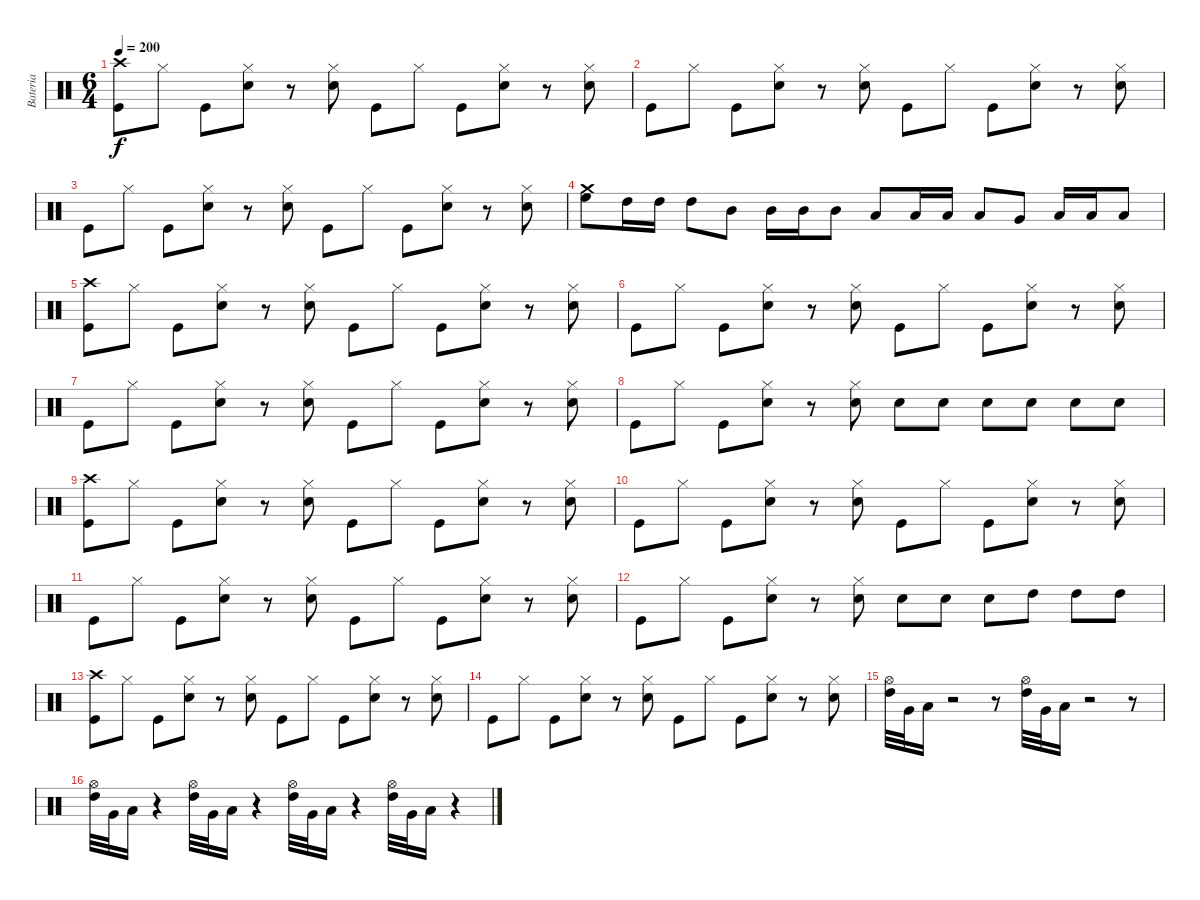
\track ("Bateria" "Bateria") {instrument percussion}
\staff {score}
\articulation defaults
\ts (6 4)
\tempo 200
\clef neutral
\ks c
("Kick (hit)" "Crash high (hit)").8{dy f} "Hi-Hat (closed)".8 "Kick (hit)".8 ("Electric Snare (hit)" "Hi-Hat (closed)").8 r.8 ("Electric Snare (hit)" "Hi-Hat (closed)").8 "Kick (hit)".8 "Hi-Hat (closed)".8 "Kick (hit)".8 ("Electric Snare (hit)" "Hi-Hat (closed)").8 r.8 ("Electric Snare (hit)" "Hi-Hat (closed)").8 |
"Kick (hit)".8 "Hi-Hat (closed)".8 "Kick (hit)".8 ("Electric Snare (hit)" "Hi-Hat (closed)").8 r.8 ("Electric Snare (hit)" "Hi-Hat (closed)").8 "Kick (hit)".8 "Hi-Hat (closed)".8 "Kick (hit)".8 ("Electric Snare (hit)" "Hi-Hat (closed)").8 r.8 ("Electric Snare (hit)" "Hi-Hat (closed)").8 |
"Kick (hit)".8 "Hi-Hat (closed)".8 "Kick (hit)".8 ("Electric Snare (hit)" "Hi-Hat (closed)").8 r.8 ("Electric Snare (hit)" "Hi-Hat (closed)").8 "Kick (hit)".8 "Hi-Hat (closed)".8 "Kick (hit)".8 ("Electric Snare (hit)" "Hi-Hat (closed)").8 r.8 ("Electric Snare (hit)" "Hi-Hat (closed)").8 |
("Crash medium (hit)" "High Floor Tom (hit)").8 "High Tom (hit)".16 "High Tom (hit)".16 "High Tom (hit)".8 "Mid Tom (hit)".8 "Mid Tom (hit)".16 "Mid Tom (hit)".16 "Mid Tom (hit)".8 "Low Tom (hit)".8 "Low Tom (hit)".16 "Low Tom (hit)".16 "Low Tom (hit)".8 "Very Low Tom (hit)".8 "Low Floor Tom (hit)".16 "Low Floor Tom (hit)".16 "Low Floor Tom (hit)".8 |
("Kick (hit)" "Crash high (hit)").8 "Hi-Hat (closed)".8 "Kick (hit)".8 ("Electric Snare (hit)" "Hi-Hat (closed)").8 r.8 ("Electric Snare (hit)" "Hi-Hat (closed)").8 "Kick (hit)".8 "Hi-Hat (closed)".8 "Kick (hit)".8 ("Electric Snare (hit)" "Hi-Hat (closed)").8 r.8 ("Electric Snare (hit)" "Hi-Hat (closed)").8 |
"Kick (hit)".8 "Hi-Hat (closed)".8 "Kick (hit)".8 ("Electric Snare (hit)" "Hi-Hat (closed)").8 r.8 ("Electric Snare (hit)" "Hi-Hat (closed)").8 "Kick (hit)".8 "Hi-Hat (closed)".8 "Kick (hit)".8 ("Electric Snare (hit)" "Hi-Hat (closed)").8 r.8 ("Electric Snare (hit)" "Hi-Hat (closed)").8 |
"Kick (hit)".8 "Hi-Hat (closed)".8 "Kick (hit)".8 ("Electric Snare (hit)" "Hi-Hat (closed)").8 r.8 ("Electric Snare (hit)" "Hi-Hat (closed)").8 "Kick (hit)".8 "Hi-Hat (closed)".8 "Kick (hit)".8 ("Electric Snare (hit)" "Hi-Hat (closed)").8 r.8 ("Electric Snare (hit)" "Hi-Hat (closed)").8 |
"Kick (hit)".8 "Hi-Hat (closed)".8 "Kick (hit)".8 ("Electric Snare (hit)" "Hi-Hat (closed)").8 r.8 ("Electric Snare (hit)" "Hi-Hat (closed)").8 "Electric Snare (hit)".8 "Electric Snare (hit)".8 "Electric Snare (hit)".8 "Electric Snare (hit)".8 "Electric Snare (hit)".8 "Electric Snare (hit)".8 |
("Kick (hit)" "Crash high (hit)").8 "Hi-Hat (closed)".8 "Kick (hit)".8 ("Electric Snare (hit)" "Hi-Hat (closed)").8 r.8 ("Electric Snare (hit)" "Hi-Hat (closed)").8 "Kick (hit)".8 "Hi-Hat (closed)".8 "Kick (hit)".8 ("Electric Snare (hit)" "Hi-Hat (closed)").8 r.8 ("Electric Snare (hit)" "Hi-Hat (closed)").8 |
"Kick (hit)".8 "Hi-Hat (closed)".8 "Kick (hit)".8 ("Electric Snare (hit)" "Hi-Hat (closed)").8 r.8 ("Electric Snare (hit)" "Hi-Hat (closed)").8 "Kick (hit)".8 "Hi-Hat (closed)".8 "Kick (hit)".8 ("Electric Snare (hit)" "Hi-Hat (closed)").8 r.8 ("Electric Snare (hit)" "Hi-Hat (closed)").8 |
"Kick (hit)".8 "Hi-Hat (closed)".8 "Kick (hit)".8 ("Electric Snare (hit)" "Hi-Hat (closed)").8 r.8 ("Electric Snare (hit)" "Hi-Hat (closed)").8 "Kick (hit)".8 "Hi-Hat (closed)".8 "Kick (hit)".8 ("Electric Snare (hit)" "Hi-Hat (closed)").8 r.8 ("Electric Snare (hit)" "Hi-Hat (closed)").8 |
"Kick (hit)".8 "Hi-Hat (closed)".8 "Kick (hit)".8 ("Electric Snare (hit)" "Hi-Hat (closed)").8 r.8 ("Electric Snare (hit)" "Hi-Hat (closed)").8 "Electric Snare (hit)".8 "Electric Snare (hit)".8 "Electric Snare (hit)".8 "High Tom (hit)".8 "High Tom (hit)".8 "High Tom (hit)".8 |
("Crash high (hit)" "Kick (hit)").8 "Hi-Hat (closed)".8 "Kick (hit)".8 ("Electric Snare (hit)" "Hi-Hat (closed)").8 r.8 ("Electric Snare (hit)" "Hi-Hat (closed)").8 "Kick (hit)".8 "Hi-Hat (closed)".8 "Kick (hit)".8 ("Electric Snare (hit)" "Hi-Hat (closed)").8 r.8 ("Electric Snare (hit)" "Hi-Hat (closed)").8 |
"Kick (hit)".8 "Hi-Hat (closed)".8 "Kick (hit)".8 ("Electric Snare (hit)" "Hi-Hat (closed)").8 r.8 ("Electric Snare (hit)" "Hi-Hat (closed)").8 "Kick (hit)".8 "Hi-Hat (closed)".8 "Kick (hit)".8 ("Electric Snare (hit)" "Hi-Hat (closed)").8 r.8 ("Electric Snare (hit)" "Hi-Hat (closed)").8 |
("Hi-Hat (open)" "High Tom (hit)").32 "Very Low Tom (hit)".32 "Low Floor Tom (hit)".16 r.2 r.8 ("Hi-Hat (open)" "High Tom (hit)").32 "Very Low Tom (hit)".32 "Low Floor Tom (hit)".16 r.2 r.8 |
("Hi-Hat (open)" "High Tom (hit)").32 "Very Low Tom (hit)".32 "Low Floor Tom (hit)".16 r.4 ("Hi-Hat (open)" "High Tom (hit)").32 "Very Low Tom (hit)".32 "Low Floor Tom (hit)".16 r.4 ("Hi-Hat (open)" "High Tom (hit)").32 "Very Low Tom (hit)".32 "Low Floor Tom (hit)".16 r.4 ("Hi-Hat (open)" "High Tom (hit)").32 "Very Low Tom (hit)".32 "Low Floor Tom (hit)".16 r.4
